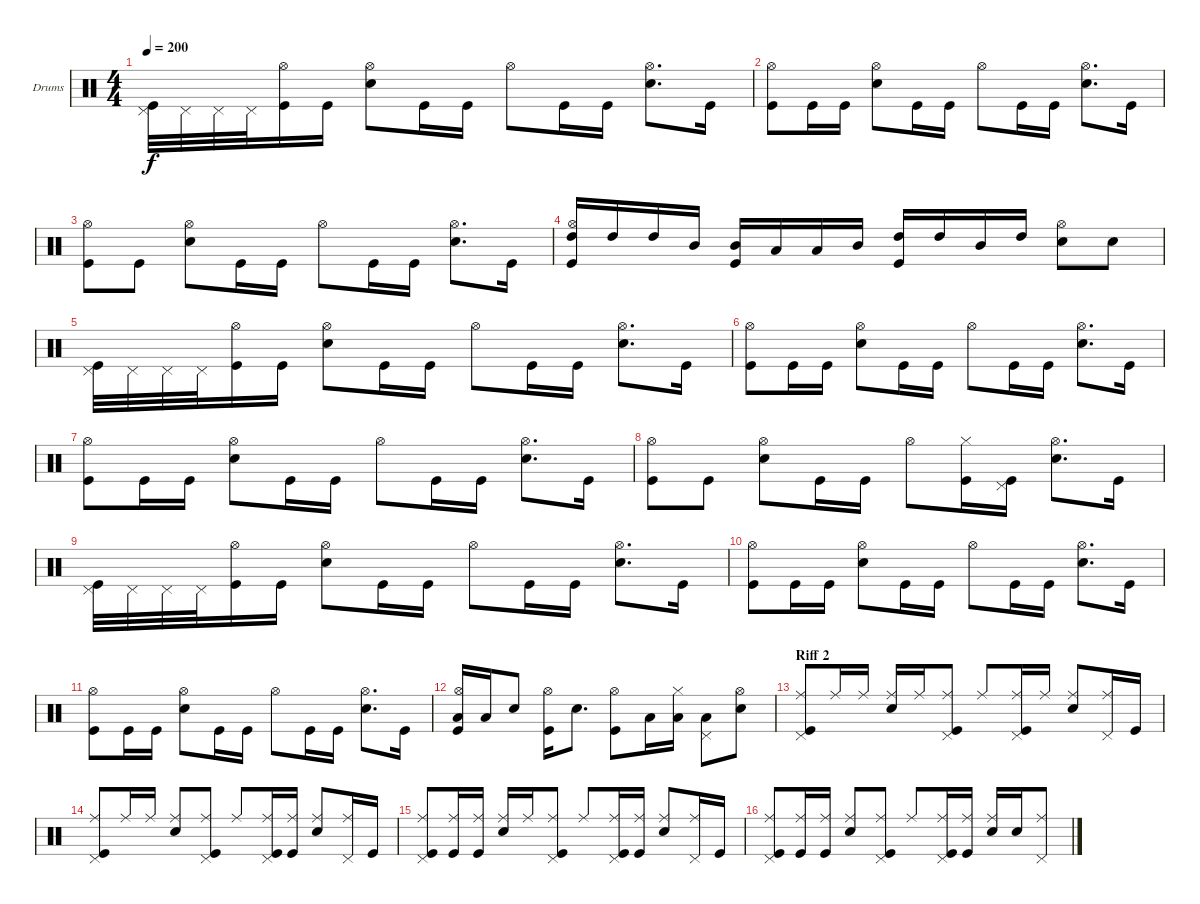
\bracketExtendMode groupsimilarinstruments
\firstSystemTrackNameOrientation horizontal
\otherSystemsTrackNameOrientation horizontal
\track ("Drumkit" "Drums") {multiBarRest instrument percussion}
\staff {score}
\articulation defaults
\ts (4 4)
\tempo 200
\clef neutral
\ks c
("Pedal Hi-Hat (hit)" "Kick (hit)").32{dy f} "Pedal Hi-Hat (hit)".32 "Pedal Hi-Hat (hit)".32 "Pedal Hi-Hat (hit)".32 ("Hi-Hat (open)" "Kick (hit)").16 "Kick (hit)".16 ("Hi-Hat (open)" "Snare (hit) 2").8 "Kick (hit)".16 "Kick (hit)".16 "Hi-Hat (open)".8 "Kick (hit)".16 "Kick (hit)".16 ("Hi-Hat (open)" "Snare (hit) 2").8{d} "Kick (hit)".16 |
("Hi-Hat (open)" "Kick (hit)").8 "Kick (hit)".16 "Kick (hit)".16 ("Hi-Hat (open)" "Snare (hit) 2").8 "Kick (hit)".16 "Kick (hit)".16 "Hi-Hat (open)".8 "Kick (hit)".16 "Kick (hit)".16 ("Hi-Hat (open)" "Snare (hit) 2").8{d} "Kick (hit)".16 |
("Hi-Hat (open)" "Kick (hit)").8 "Kick (hit)".8 ("Hi-Hat (open)" "Snare (hit) 2").8 "Kick (hit)".16 "Kick (hit)".16 "Hi-Hat (open)".8 "Kick (hit)".16 "Kick (hit)".16 ("Hi-Hat (open)" "Snare (hit) 2").8{d} "Kick (hit)".16 |
("Hi-Hat (open)" "High Tom (hit)" "Kick (hit)").16 "High Tom (hit)".16 "High Tom (hit)".16 "Mid Tom (hit)".16 ("Mid Tom (hit)" "Kick (hit)").16 "Low Tom (hit)".16 "Low Tom (hit)".16 "Mid Tom (hit)".16 ("High Tom (hit)" "Kick (hit)").16 "High Tom (hit)".16 "Mid Tom (hit)".16 "High Tom (hit)".16 ("Hi-Hat (open)" "Snare (hit) 2").8 "Snare (hit) 2".8 |
("Pedal Hi-Hat (hit)" "Kick (hit)").32 "Pedal Hi-Hat (hit)".32 "Pedal Hi-Hat (hit)".32 "Pedal Hi-Hat (hit)".32 ("Hi-Hat (open)" "Kick (hit)").16 "Kick (hit)".16 ("Hi-Hat (open)" "Snare (hit) 2").8 "Kick (hit)".16 "Kick (hit)".16 "Hi-Hat (open)".8 "Kick (hit)".16 "Kick (hit)".16 ("Hi-Hat (open)" "Snare (hit) 2").8{d} "Kick (hit)".16 |
("Hi-Hat (open)" "Kick (hit)").8 "Kick (hit)".16 "Kick (hit)".16 ("Hi-Hat (open)" "Snare (hit) 2").8 "Kick (hit)".16 "Kick (hit)".16 "Hi-Hat (open)".8 "Kick (hit)".16 "Kick (hit)".16 ("Hi-Hat (open)" "Snare (hit) 2").8{d} "Kick (hit)".16 |
("Hi-Hat (open)" "Kick (hit)").8 "Kick (hit)".16 "Kick (hit)".16 ("Hi-Hat (open)" "Snare (hit) 2").8 "Kick (hit)".16 "Kick (hit)".16 "Hi-Hat (open)".8 "Kick (hit)".16 "Kick (hit)".16 ("Hi-Hat (open)" "Snare (hit) 2").8{d} "Kick (hit)".16 |
("Hi-Hat (open)" "Kick (hit)").8 "Kick (hit)".8 ("Hi-Hat (open)" "Snare (hit) 2").8 "Kick (hit)".16 "Kick (hit)".16 "Hi-Hat (open)".8 ("Hi-Hat (closed)" "Kick (hit)").16 ("Pedal Hi-Hat (hit)" "Kick (hit)").16 ("Hi-Hat (open)" "Snare (hit) 2").8{d} "Kick (hit)".16 |
("Pedal Hi-Hat (hit)" "Kick (hit)").32 "Pedal Hi-Hat (hit)".32 "Pedal Hi-Hat (hit)".32 "Pedal Hi-Hat (hit)".32 ("Hi-Hat (open)" "Kick (hit)").16 "Kick (hit)".16 ("Hi-Hat (open)" "Snare (hit) 2").8 "Kick (hit)".16 "Kick (hit)".16 "Hi-Hat (open)".8 "Kick (hit)".16 "Kick (hit)".16 ("Hi-Hat (open)" "Snare (hit) 2").8{d} "Kick (hit)".16 |
("Hi-Hat (open)" "Kick (hit)").8 "Kick (hit)".16 "Kick (hit)".16 ("Hi-Hat (open)" "Snare (hit) 2").8 "Kick (hit)".16 "Kick (hit)".16 "Hi-Hat (open)".8 "Kick (hit)".16 "Kick (hit)".16 ("Hi-Hat (open)" "Snare (hit) 2").8{d} "Kick (hit)".16 |
("Hi-Hat (open)" "Kick (hit)").8 "Kick (hit)".16 "Kick (hit)".16 ("Hi-Hat (open)" "Snare (hit) 2").8 "Kick (hit)".16 "Kick (hit)".16 "Hi-Hat (open)".8 "Kick (hit)".16 "Kick (hit)".16 ("Hi-Hat (open)" "Snare (hit) 2").8{d} "Kick (hit)".16 |
("Hi-Hat (open)" "Low Tom (hit)" "Kick (hit)").16 "Low Tom (hit)".16 "Snare (hit) 2".8 ("Hi-Hat (open)" "Kick (hit)").16 "Snare (hit) 2".8{d} ("Hi-Hat (open)" "Kick (hit)").8 "Low Tom (hit)".16 ("Hi-Hat (closed)" "Low Tom (hit)").16 ("Pedal Hi-Hat (hit)" "Low Tom (hit)").8 ("Hi-Hat (open)" "Snare (hit) 2").8 |
\section ("" "Riff 2")
("Pedal Hi-Hat (hit)" "Ride (middle)" "Kick (hit)").8 "Ride (middle)".16 "Ride (middle)".16 ("Ride (middle)" "Snare (hit) 2").16 "Ride (middle)".16 ("Pedal Hi-Hat (hit)" "Ride (middle)" "Kick (hit)").8 "Ride (middle)".8 ("Pedal Hi-Hat (hit)" "Ride (middle)" "Kick (hit)").16 "Ride (middle)".16 ("Ride (middle)" "Snare (hit) 2").8 ("Pedal Hi-Hat (hit)" "Ride (middle)").16 "Kick (hit)".16 |
("Pedal Hi-Hat (hit)" "Ride (middle)" "Kick (hit)").8 "Ride (middle)".16 "Ride (middle)".16 ("Ride (middle)" "Snare (hit) 2").8 ("Pedal Hi-Hat (hit)" "Ride (middle)" "Kick (hit)").8 "Ride (middle)".8 ("Pedal Hi-Hat (hit)" "Ride (middle)" "Kick (hit)").16 ("Ride (middle)" "Kick (hit)").16 ("Ride (middle)" "Snare (hit) 2").8 ("Pedal Hi-Hat (hit)" "Ride (middle)").16 "Kick (hit)".16 |
("Pedal Hi-Hat (hit)" "Ride (middle)" "Kick (hit)").8 ("Ride (middle)" "Kick (hit)").16 ("Ride (middle)" "Kick (hit)").16 ("Ride (middle)" "Snare (hit) 2").16 "Ride (middle)".16 ("Pedal Hi-Hat (hit)" "Ride (middle)" "Kick (hit)").8 "Ride (middle)".8 ("Pedal Hi-Hat (hit)" "Ride (middle)" "Kick (hit)").16 ("Ride (middle)" "Kick (hit)").16 ("Ride (middle)" "Snare (hit) 2").8 ("Pedal Hi-Hat (hit)" "Ride (middle)").16 "Kick (hit)".16 |
("Pedal Hi-Hat (hit)" "Ride (middle)" "Kick (hit)").8 ("Ride (middle)" "Kick (hit)").16 ("Ride (middle)" "Kick (hit)").16 ("Ride (middle)" "Snare (hit) 2").8 ("Pedal Hi-Hat (hit)" "Ride (middle)" "Kick (hit)").8 "Ride (middle)".8 ("Pedal Hi-Hat (hit)" "Ride (middle)" "Kick (hit)").16 ("Ride (middle)" "Kick (hit)").16 ("Ride (middle)" "Snare (hit) 2").16 "Snare (hit) 2".16 ("Pedal Hi-Hat (hit)" "Ride (middle)").8
